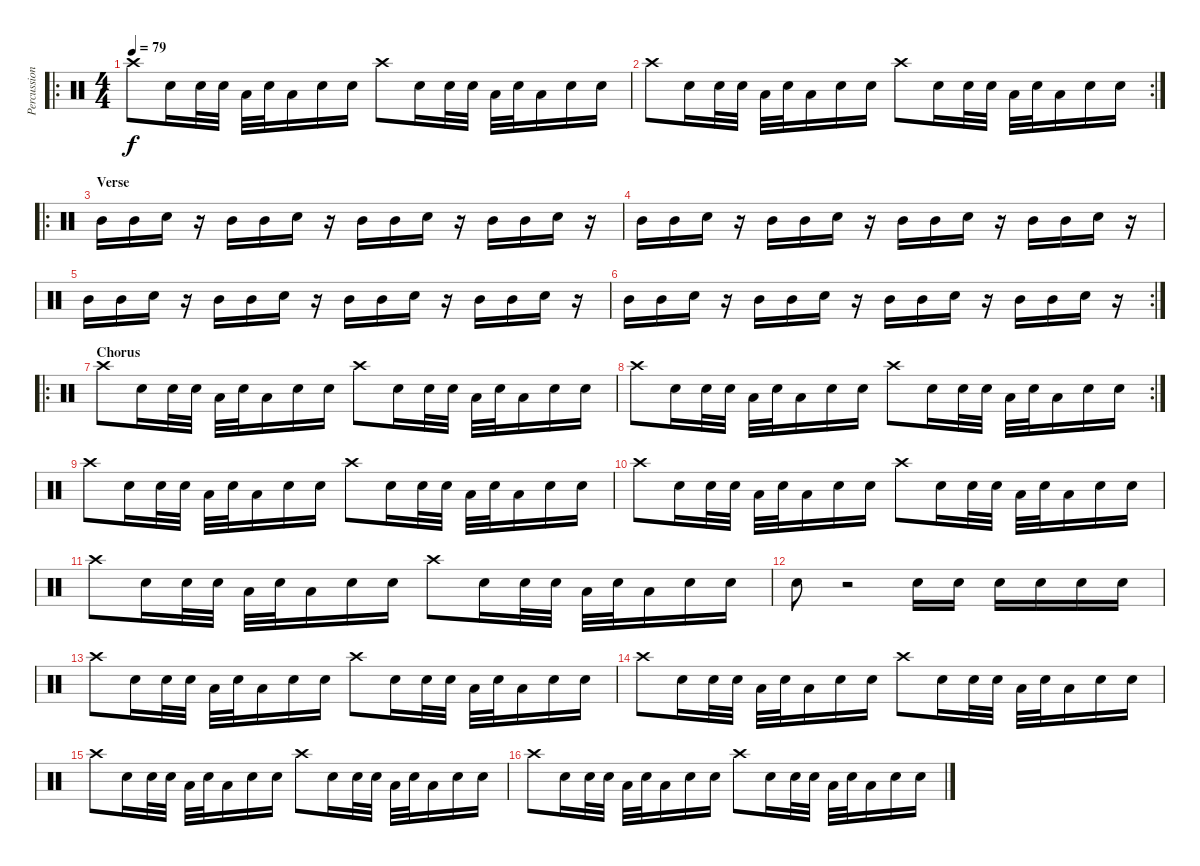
\track ("Percussion" "Percussion") {instrument percussion}
\staff {score}
\articulation defaults
\ro
\ts (4 4)
\tempo 79
\clef neutral
\ks c "Crash high (hit)".8{dy f} "Snare (hit) 2".16 "Snare (hit) 2".32 "Snare (hit) 2".32 "Low Floor Tom (hit)".32 "Snare (hit) 2".32 "Low Floor Tom (hit)".16 "Snare (hit) 2".16 "Electric Snare (hit)".16 "Crash high (hit)".8 "Snare (hit) 2".16 "Snare (hit) 2".32 "Snare (hit) 2".32 "Low Floor Tom (hit)".32 "Snare (hit) 2".32 "Low Floor Tom (hit)".16 "Snare (hit) 2".16 "Electric Snare (hit)".16
|
\rc 2 "Crash high (hit)".8 "Snare (hit) 2".16 "Snare (hit) 2".32 "Snare (hit) 2".32 "Low Floor Tom (hit)".32 "Snare (hit) 2".32 "Low Floor Tom (hit)".16 "Snare (hit) 2".16 "Electric Snare (hit)".16 "Crash high (hit)".8 "Snare (hit) 2".16 "Snare (hit) 2".32 "Snare (hit) 2".32 "Low Floor Tom (hit)".32 "Snare (hit) 2".32 "Low Floor Tom (hit)".16 "Snare (hit) 2".16 "Electric Snare (hit)".16
|
\ro
\section ("" "Verse")
"Mid Tom (hit)".16 "Mid Tom (hit)".16 "Snare (hit) 2".16 r.16 "Mid Tom (hit)".16 "Mid Tom (hit)".16 "Snare (hit) 2".16 r.16 "Mid Tom (hit)".16 "Mid Tom (hit)".16 "Snare (hit) 2".16 r.16 "Mid Tom (hit)".16 "Mid Tom (hit)".16 "Snare (hit) 2".16 r.16 |
"Mid Tom (hit)".16 "Mid Tom (hit)".16 "Snare (hit) 2".16 r.16 "Mid Tom (hit)".16 "Mid Tom (hit)".16 "Snare (hit) 2".16 r.16 "Mid Tom (hit)".16 "Mid Tom (hit)".16 "Snare (hit) 2".16 r.16 "Mid Tom (hit)".16 "Mid Tom (hit)".16 "Snare (hit) 2".16 r.16 |
"Mid Tom (hit)".16 "Mid Tom (hit)".16 "Snare (hit) 2".16 r.16 "Mid Tom (hit)".16 "Mid Tom (hit)".16 "Snare (hit) 2".16 r.16 "Mid Tom (hit)".16 "Mid Tom (hit)".16 "Snare (hit) 2".16 r.16 "Mid Tom (hit)".16 "Mid Tom (hit)".16 "Snare (hit) 2".16 r.16 |
\rc 2 "Mid Tom (hit)".16 "Mid Tom (hit)".16 "Snare (hit) 2".16
r.16 "Mid Tom (hit)".16 "Mid Tom (hit)".16 "Snare (hit) 2".16 r.16 "Mid Tom (hit)".16 "Mid Tom (hit)".16 "Snare (hit) 2".16 r.16 "Mid Tom (hit)".16 "Mid Tom (hit)".16 "Snare (hit) 2".16 r.16 |
\ro
\section ("" "Chorus")
"Crash high (hit)".8 "Snare (hit) 2".16 "Snare (hit) 2".32 "Snare (hit) 2".32 "Low Floor Tom (hit)".32 "Snare (hit) 2".32 "Low Floor Tom (hit)".16 "Snare (hit) 2".16 "Electric Snare (hit)".16 "Crash high (hit)".8 "Snare (hit) 2".16 "Snare (hit) 2".32 "Snare (hit) 2".32 "Low Floor Tom (hit)".32 "Snare (hit) 2".32 "Low Floor Tom (hit)".16 "Snare (hit) 2".16 "Electric Snare (hit)".16 |
\rc 2 "Crash high (hit)".8 "Snare (hit) 2".16 "Snare (hit) 2".32 "Snare (hit) 2".32 "Low Floor Tom (hit)".32 "Snare (hit) 2".32 "Low Floor Tom (hit)".16 "Snare (hit) 2".16 "Electric Snare (hit)".16 "Crash high (hit)".8 "Snare (hit) 2".16 "Snare (hit) 2".32 "Snare (hit) 2".32 "Low Floor Tom (hit)".32 "Snare (hit) 2".32 "Low Floor Tom (hit)".16 "Snare (hit) 2".16 "Electric Snare (hit)".16
|
"Crash high (hit)".8 "Snare (hit) 2".16 "Snare (hit) 2".32 "Snare (hit) 2".32 "Low Floor Tom (hit)".32 "Snare (hit) 2".32 "Low Floor Tom (hit)".16 "Snare (hit) 2".16 "Electric Snare (hit)".16 "Crash high (hit)".8 "Snare (hit) 2".16 "Snare (hit) 2".32 "Snare (hit) 2".32 "Low Floor Tom (hit)".32 "Snare (hit) 2".32 "Low Floor Tom (hit)".16 "Snare (hit) 2".16 "Electric Snare (hit)".16 |
"Crash high (hit)".8 "Snare (hit) 2".16 "Snare (hit) 2".32 "Snare (hit) 2".32 "Low Floor Tom (hit)".32 "Snare (hit) 2".32 "Low Floor Tom (hit)".16 "Snare (hit) 2".16 "Electric Snare (hit)".16 "Crash high (hit)".8 "Snare (hit) 2".16 "Snare (hit) 2".32 "Snare (hit) 2".32 "Low Floor Tom (hit)".32 "Snare (hit) 2".32 "Low Floor Tom (hit)".16 "Snare (hit) 2".16 "Electric Snare (hit)".16 |
"Crash high (hit)".8 "Snare (hit) 2".16 "Snare (hit) 2".32 "Snare (hit) 2".32 "Low Floor Tom (hit)".32 "Snare (hit) 2".32 "Low Floor Tom (hit)".16 "Snare (hit) 2".16 "Electric Snare (hit)".16 "Crash high (hit)".8 "Snare (hit) 2".16 "Snare (hit) 2".32 "Snare (hit) 2".32 "Low Floor Tom (hit)".32 "Snare (hit) 2".32 "Low Floor Tom (hit)".16 "Snare (hit) 2".16 "Electric Snare (hit)".16 |
"Snare (hit) 2".8 r.2 "Snare (hit) 2".16 "Snare (hit) 2".16 "Snare (hit) 2".16 "Snare (hit) 2".16 "Snare (hit) 2".16 "Snare (hit) 2".16 |
"Crash high (hit)".8 "Snare (hit) 2".16 "Snare (hit) 2".32 "Snare (hit) 2".32 "Low Floor Tom (hit)".32 "Snare (hit) 2".32 "Low Floor Tom (hit)".16 "Snare (hit) 2".16 "Electric Snare (hit)".16 "Crash high (hit)".8 "Snare (hit) 2".16 "Snare (hit) 2".32 "Snare (hit) 2".32 "Low Floor Tom (hit)".32 "Snare (hit) 2".32 "Low Floor Tom (hit)".16 "Snare (hit) 2".16 "Electric Snare (hit)".16 |
"Crash high (hit)".8 "Snare (hit) 2".16 "Snare (hit) 2".32 "Snare (hit) 2".32 "Low Floor Tom (hit)".32 "Snare (hit) 2".32 "Low Floor Tom (hit)".16 "Snare (hit) 2".16 "Electric Snare (hit)".16 "Crash high (hit)".8 "Snare (hit) 2".16 "Snare (hit) 2".32 "Snare (hit) 2".32 "Low Floor Tom (hit)".32 "Snare (hit) 2".32 "Low Floor Tom (hit)".16 "Snare (hit) 2".16 "Electric Snare (hit)".16 |
"Crash high (hit)".8 "Snare (hit) 2".16 "Snare (hit) 2".32 "Snare (hit) 2".32 "Low Floor Tom (hit)".32 "Snare (hit) 2".32 "Low Floor Tom (hit)".16 "Snare (hit) 2".16 "Electric Snare (hit)".16 "Crash high (hit)".8 "Snare (hit) 2".16 "Snare (hit) 2".32 "Snare (hit) 2".32 "Low Floor Tom (hit)".32 "Snare (hit) 2".32 "Low Floor Tom (hit)".16 "Snare (hit) 2".16 "Electric Snare (hit)".16 |
"Crash high (hit)".8 "Snare (hit) 2".16 "Snare (hit) 2".32 "Snare (hit) 2".32 "Low Floor Tom (hit)".32 "Snare (hit) 2".32 "Low Floor Tom (hit)".16 "Snare (hit) 2".16 "Electric Snare (hit)".16 "Crash high (hit)".8 "Snare (hit) 2".16 "Snare (hit) 2".32 "Snare (hit) 2".32 "Low Floor Tom (hit)".32 "Snare (hit) 2".32 "Low Floor Tom (hit)".16 "Snare (hit) 2".16 "Electric Snare (hit)".16
